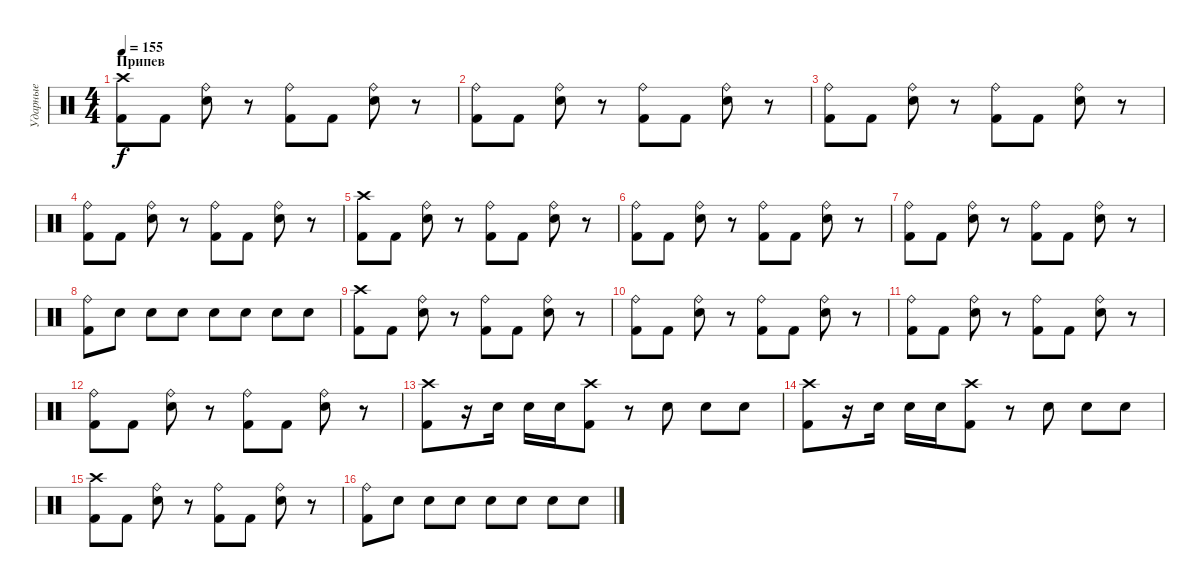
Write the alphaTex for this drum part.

\track ("Ударные" "Ударные") {instrument percussion}
\staff {score}
\articulation defaults
\ts (4 4)
\section ("" "Припев")
\tempo 155
\clef neutral
\ks c
("Crash high (hit)" "Kick (hit) 2").8{dy f} "Kick (hit) 2".8 ("Ride (bell)" "Snare (hit) 2").8 r.8 ("Ride (bell)" "Kick (hit) 2").8 "Kick (hit) 2".8 ("Ride (bell)" "Snare (hit) 2").8 r.8 |
("Ride (bell)" "Kick (hit) 2").8 "Kick (hit) 2".8 ("Ride (bell)" "Snare (hit) 2").8 r.8 ("Ride (bell)" "Kick (hit) 2").8 "Kick (hit) 2".8 ("Ride (bell)" "Snare (hit) 2").8 r.8 |
("Ride (bell)" "Kick (hit) 2").8 "Kick (hit) 2".8 ("Ride (bell)" "Snare (hit) 2").8 r.8 ("Ride (bell)" "Kick (hit) 2").8 "Kick (hit) 2".8 ("Ride (bell)" "Snare (hit) 2").8 r.8 |
("Ride (bell)" "Kick (hit) 2").8 "Kick (hit) 2".8 ("Ride (bell)" "Snare (hit) 2").8 r.8 ("Ride (bell)" "Kick (hit) 2").8 "Kick (hit) 2".8 ("Ride (bell)" "Snare (hit) 2").8 r.8 |
("Crash high (hit)" "Kick (hit) 2").8 "Kick (hit) 2".8 ("Ride (bell)" "Snare (hit) 2").8 r.8 ("Ride (bell)" "Kick (hit) 2").8 "Kick (hit) 2".8 ("Ride (bell)" "Snare (hit) 2").8 r.8 |
("Ride (bell)" "Kick (hit) 2").8 "Kick (hit) 2".8 ("Ride (bell)" "Snare (hit) 2").8 r.8 ("Ride (bell)" "Kick (hit) 2").8 "Kick (hit) 2".8 ("Ride (bell)" "Snare (hit) 2").8 r.8 |
("Ride (bell)" "Kick (hit) 2").8 "Kick (hit) 2".8 ("Ride (bell)" "Snare (hit) 2").8 r.8 ("Ride (bell)" "Kick (hit) 2").8 "Kick (hit) 2".8 ("Ride (bell)" "Snare (hit) 2").8 r.8 |
("Ride (bell)" "Kick (hit) 2").8 "Snare (hit) 2".8 "Snare (hit) 2".8 "Snare (hit) 2".8 "Snare (hit) 2".8 "Snare (hit) 2".8 "Snare (hit) 2".8 "Snare (hit) 2".8 |
("Crash high (hit)" "Kick (hit) 2").8 "Kick (hit) 2".8 ("Ride (bell)" "Snare (hit) 2").8 r.8 ("Ride (bell)" "Kick (hit) 2").8 "Kick (hit) 2".8 ("Ride (bell)" "Snare (hit) 2").8 r.8 |
("Ride (bell)" "Kick (hit) 2").8 "Kick (hit) 2".8 ("Ride (bell)" "Snare (hit) 2").8 r.8 ("Ride (bell)" "Kick (hit) 2").8 "Kick (hit) 2".8 ("Ride (bell)" "Snare (hit) 2").8 r.8 |
("Ride (bell)" "Kick (hit) 2").8 "Kick (hit) 2".8 ("Ride (bell)" "Snare (hit) 2").8 r.8 ("Ride (bell)" "Kick (hit) 2").8 "Kick (hit) 2".8 ("Ride (bell)" "Snare (hit) 2").8 r.8 |
("Ride (bell)" "Kick (hit) 2").8 "Kick (hit) 2".8 ("Ride (bell)" "Snare (hit) 2").8 r.8 ("Ride (bell)" "Kick (hit) 2").8 "Kick (hit) 2".8 ("Ride (bell)" "Snare (hit) 2").8 r.8 |
("Crash high (hit)" "Kick (hit) 2").8 r.16 "Snare (hit) 2".16 "Snare (hit) 2".16 "Snare (hit) 2".16 ("Crash high (hit)" "Kick (hit) 2").8 r.8 "Snare (hit) 2".8 "Snare (hit) 2".8 "Snare (hit) 2".8 |
("Crash high (hit)" "Kick (hit) 2").8 r.16 "Snare (hit) 2".16 "Snare (hit) 2".16 "Snare (hit) 2".16 ("Crash high (hit)" "Kick (hit) 2").8 r.8 "Snare (hit) 2".8 "Snare (hit) 2".8 "Snare (hit) 2".8 |
("Crash high (hit)" "Kick (hit) 2").8 "Kick (hit) 2".8 ("Ride (bell)" "Snare (hit) 2").8 r.8 ("Ride (bell)" "Kick (hit) 2").8 "Kick (hit) 2".8 ("Ride (bell)" "Snare (hit) 2").8 r.8 |
("Ride (bell)" "Kick (hit) 2").8 "Snare (hit) 2".8 "Snare (hit) 2".8 "Snare (hit) 2".8 "Snare (hit) 2".8 "Snare (hit) 2".8 "Snare (hit) 2".8 "Snare (hit) 2".8
